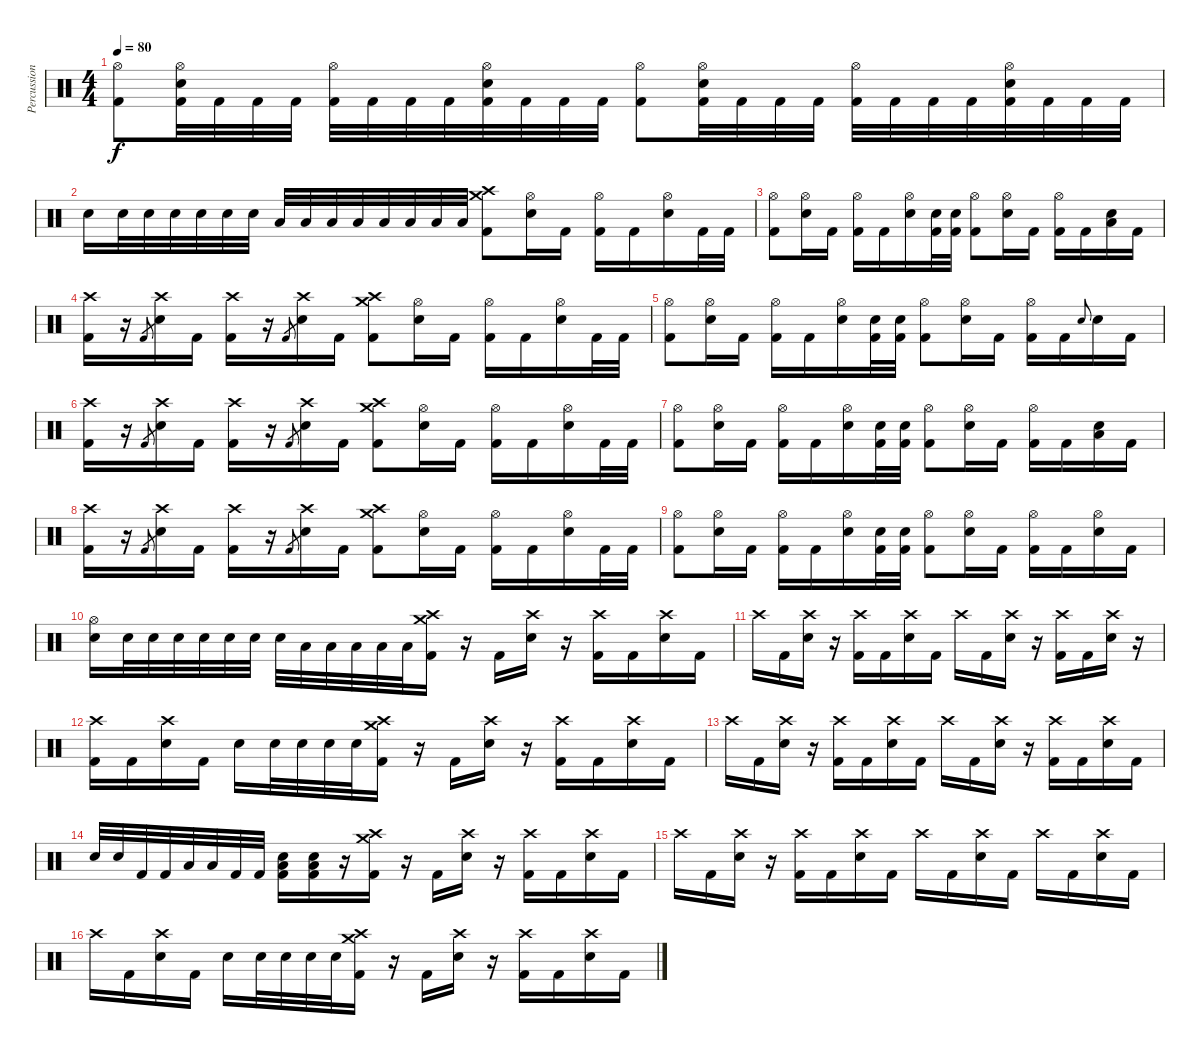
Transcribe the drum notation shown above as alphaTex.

\track ("Percussion" "Percussion") {instrument percussion}
\staff {score}
\articulation defaults
\ts (4 4)
\tempo 80
\clef neutral
\ks c
("Hi-Hat (open)" "Kick (hit) 2").8{dy f} ("Hi-Hat (open)" "Electric Snare (hit)" "Kick (hit) 2").32 "Kick (hit) 2".32 "Kick (hit) 2".32 "Kick (hit) 2".32 ("Hi-Hat (open)" "Kick (hit) 2").32 "Kick (hit) 2".32 "Kick (hit) 2".32 "Kick (hit) 2".32 ("Hi-Hat (open)" "Electric Snare (hit)" "Kick (hit) 2").32 "Kick (hit) 2".32 "Kick (hit) 2".32 "Kick (hit) 2".32 ("Hi-Hat (open)" "Kick (hit) 2").8 ("Hi-Hat (open)" "Electric Snare (hit)" "Kick (hit) 2").32 "Kick (hit) 2".32 "Kick (hit) 2".32 "Kick (hit) 2".32 ("Hi-Hat (open)" "Kick (hit) 2").32 "Kick (hit) 2".32 "Kick (hit) 2".32 "Kick (hit) 2".32 ("Hi-Hat (open)" "Electric Snare (hit)" "Kick (hit) 2").32 "Kick (hit) 2".32 "Kick (hit) 2".32 "Kick (hit) 2".32 |
"Electric Snare (hit)".16 "Electric Snare (hit)".32 "Electric Snare (hit)".32 "Electric Snare (hit)".32 "Electric Snare (hit)".32 "Electric Snare (hit)".32 "Electric Snare (hit)".32 "Low Tom (hit)".32 "Low Tom (hit)".32 "Low Tom (hit)".32 "Low Tom (hit)".32 "Low Floor Tom (hit)".32 "Low Floor Tom (hit)".32 "Low Floor Tom (hit)".32 "Low Floor Tom (hit)".32 ("Crash medium (hit)" "Crash high (hit)" "Kick (hit) 2").8 ("Hi-Hat (open)" "Electric Snare (hit)").16 "Kick (hit) 2".16 ("Hi-Hat (open)" "Kick (hit) 2").16 "Kick (hit) 2".16 ("Hi-Hat (open)" "Electric Snare (hit)").16 "Kick (hit) 2".32 "Kick (hit) 2".32 |
("Hi-Hat (open)" "Kick (hit) 2").8 ("Hi-Hat (open)" "Electric Snare (hit)").16 "Kick (hit) 2".16 ("Hi-Hat (open)" "Kick (hit) 2").16 "Kick (hit) 2".16 ("Hi-Hat (open)" "Electric Snare (hit)").16 ("Electric Snare (hit)" "Kick (hit) 2").32 ("Electric Snare (hit)" "Kick (hit) 2").32 ("Hi-Hat (open)" "Kick (hit) 2").8 ("Hi-Hat (open)" "Electric Snare (hit)").16 "Kick (hit) 2".16 ("Hi-Hat (open)" "Kick (hit) 2").16 "Kick (hit) 2".16 ("Low Floor Tom (hit)" "Electric Snare (hit)").16 "Kick (hit) 2".16 |
("Crash high (hit)" "Kick (hit) 2").16 r.16 "Kick (hit) 2".8{gr} ("Crash high (hit)" "Electric Snare (hit)").16 "Kick (hit) 2".16 ("Crash high (hit)" "Kick (hit) 2").16 r.16 "Kick (hit) 2".8{gr} ("Crash high (hit)" "Electric Snare (hit)").16 "Kick (hit) 2".16 ("Crash medium (hit)" "Crash high (hit)" "Kick (hit) 2").8 ("Hi-Hat (open)" "Electric Snare (hit)").16 "Kick (hit) 2".16 ("Hi-Hat (open)" "Kick (hit) 2").16 "Kick (hit) 2".16 ("Hi-Hat (open)" "Electric Snare (hit)").16 "Kick (hit) 2".32 "Kick (hit) 2".32 |
("Hi-Hat (open)" "Kick (hit) 2").8 ("Hi-Hat (open)" "Electric Snare (hit)").16 "Kick (hit) 2".16 ("Hi-Hat (open)" "Kick (hit) 2").16 "Kick (hit) 2".16 ("Hi-Hat (open)" "Electric Snare (hit)").16 ("Electric Snare (hit)" "Kick (hit) 2").32 ("Electric Snare (hit)" "Kick (hit) 2").32 ("Hi-Hat (open)" "Kick (hit) 2").8 ("Hi-Hat (open)" "Electric Snare (hit)").16 "Kick (hit) 2".16 ("Hi-Hat (open)" "Kick (hit) 2").16 "Kick (hit) 2".16 "Electric Snare (hit)".8{gr onbeat} "Electric Snare (hit)".16 "Kick (hit) 2".16 |
("Crash high (hit)" "Kick (hit) 2").16 r.16 "Kick (hit) 2".8{gr} ("Crash high (hit)" "Electric Snare (hit)").16 "Kick (hit) 2".16 ("Crash high (hit)" "Kick (hit) 2").16 r.16 "Kick (hit) 2".8{gr} ("Crash high (hit)" "Electric Snare (hit)").16 "Kick (hit) 2".16 ("Crash medium (hit)" "Crash high (hit)" "Kick (hit) 2").8 ("Hi-Hat (open)" "Electric Snare (hit)").16 "Kick (hit) 2".16 ("Hi-Hat (open)" "Kick (hit) 2").16 "Kick (hit) 2".16 ("Hi-Hat (open)" "Electric Snare (hit)").16 "Kick (hit) 2".32 "Kick (hit) 2".32 |
("Hi-Hat (open)" "Kick (hit) 2").8 ("Hi-Hat (open)" "Electric Snare (hit)").16 "Kick (hit) 2".16 ("Hi-Hat (open)" "Kick (hit) 2").16 "Kick (hit) 2".16 ("Hi-Hat (open)" "Electric Snare (hit)").16 ("Electric Snare (hit)" "Kick (hit) 2").32 ("Electric Snare (hit)" "Kick (hit) 2").32 ("Hi-Hat (open)" "Kick (hit) 2").8 ("Hi-Hat (open)" "Electric Snare (hit)").16 "Kick (hit) 2".16 ("Hi-Hat (open)" "Kick (hit) 2").16 "Kick (hit) 2".16 ("Low Floor Tom (hit)" "Electric Snare (hit)").16 "Kick (hit) 2".16 |
("Crash high (hit)" "Kick (hit) 2").16 r.16 "Kick (hit) 2".8{gr} ("Crash high (hit)" "Electric Snare (hit)").16 "Kick (hit) 2".16 ("Crash high (hit)" "Kick (hit) 2").16 r.16 "Kick (hit) 2".8{gr} ("Crash high (hit)" "Electric Snare (hit)").16 "Kick (hit) 2".16 ("Crash medium (hit)" "Crash high (hit)" "Kick (hit) 2").8 ("Hi-Hat (open)" "Electric Snare (hit)").16 "Kick (hit) 2".16 ("Hi-Hat (open)" "Kick (hit) 2").16 "Kick (hit) 2".16 ("Hi-Hat (open)" "Electric Snare (hit)").16 "Kick (hit) 2".32 "Kick (hit) 2".32 |
("Hi-Hat (open)" "Kick (hit) 2").8 ("Hi-Hat (open)" "Electric Snare (hit)").16 "Kick (hit) 2".16 ("Hi-Hat (open)" "Kick (hit) 2").16 "Kick (hit) 2".16 ("Hi-Hat (open)" "Electric Snare (hit)").16 ("Electric Snare (hit)" "Kick (hit) 2").32 ("Electric Snare (hit)" "Kick (hit) 2").32 ("Hi-Hat (open)" "Kick (hit) 2").8 ("Hi-Hat (open)" "Electric Snare (hit)").16 "Kick (hit) 2".16 ("Hi-Hat (open)" "Kick (hit) 2").16 "Kick (hit) 2".16 ("Hi-Hat (open)" "Electric Snare (hit)").16 "Kick (hit) 2".16 |
("Hi-Hat (open)" "Electric Snare (hit)").16 "Electric Snare (hit)".32 "Electric Snare (hit)".32 "Electric Snare (hit)".32 "Electric Snare (hit)".32 "Electric Snare (hit)".32 "Electric Snare (hit)".32 "Electric Snare (hit)".32 "Low Tom (hit)".32 "Low Tom (hit)".32 "Low Tom (hit)".32 "Low Tom (hit)".32 "Low Floor Tom (hit)".32 ("Crash medium (hit)" "Crash high (hit)" "Kick (hit) 2").16 r.16 "Kick (hit) 2".16 ("Crash high (hit)" "Electric Snare (hit)").16 r.16 ("Crash high (hit)" "Kick (hit) 2").16 "Kick (hit) 2".16 ("Crash high (hit)" "Electric Snare (hit)").16 "Kick (hit) 2".16 |
"Crash high (hit)".16 "Kick (hit) 2".16 ("Crash high (hit)" "Electric Snare (hit)").16 r.16 ("Crash high (hit)" "Kick (hit) 2").16 "Kick (hit) 2".16 ("Crash high (hit)" "Electric Snare (hit)").16 "Kick (hit) 2".16 "Crash high (hit)".16 "Kick (hit) 2".16 ("Crash high (hit)" "Electric Snare (hit)").16 r.16 ("Crash high (hit)" "Kick (hit) 2").16 "Kick (hit) 2".16 ("Crash high (hit)" "Electric Snare (hit)").16 r.16 |
("Crash high (hit)" "Kick (hit) 2").16 "Kick (hit) 2".16 ("Crash high (hit)" "Electric Snare (hit)").16 "Kick (hit) 2".16 "Electric Snare (hit)".16 "Electric Snare (hit)".32 "Electric Snare (hit)".32 "Electric Snare (hit)".32 "Electric Snare (hit)".32 ("Crash medium (hit)" "Crash high (hit)" "Kick (hit) 2").16 r.16 "Kick (hit) 2".16 ("Crash high (hit)" "Electric Snare (hit)").16 r.16 ("Crash high (hit)" "Kick (hit) 2").16 "Kick (hit) 2".16 ("Crash high (hit)" "Electric Snare (hit)").16 "Kick (hit) 2".16 |
"Crash high (hit)".16 "Kick (hit) 2".16 ("Crash high (hit)" "Electric Snare (hit)").16 r.16 ("Crash high (hit)" "Kick (hit) 2").16 "Kick (hit) 2".16 ("Crash high (hit)" "Electric Snare (hit)").16 "Kick (hit) 2".16 "Crash high (hit)".16 "Kick (hit) 2".16 ("Crash high (hit)" "Electric Snare (hit)").16 r.16 ("Crash high (hit)" "Kick (hit) 2").16 "Kick (hit) 2".16 ("Crash high (hit)" "Electric Snare (hit)").16 "Kick (hit) 2".16 |
"Electric Snare (hit)".32 "Electric Snare (hit)".32 "Kick (hit) 2".32 "Kick (hit) 2".32 "Low Tom (hit)".32 "Low Tom (hit)".32 "Kick (hit) 2".32 "Kick (hit) 2".32 ("Low Floor Tom (hit)" "Electric Snare (hit)" "Kick (hit) 2").16 ("Low Floor Tom (hit)" "Electric Snare (hit)" "Kick (hit) 2").16 r.16 ("Crash medium (hit)" "Crash high (hit)" "Kick (hit) 2").16 r.16 "Kick (hit) 2".16 ("Crash high (hit)" "Electric Snare (hit)").16 r.16 ("Crash high (hit)" "Kick (hit) 2").16 "Kick (hit) 2".16 ("Crash high (hit)" "Electric Snare (hit)").16 "Kick (hit) 2".16 |
"Crash high (hit)".16 "Kick (hit) 2".16 ("Crash high (hit)" "Electric Snare (hit)").16 r.16 ("Crash high (hit)" "Kick (hit) 2").16 "Kick (hit) 2".16 ("Crash high (hit)" "Electric Snare (hit)").16 "Kick (hit) 2".16 "Crash high (hit)".16 "Kick (hit) 2".16 ("Crash high (hit)" "Electric Snare (hit)").16 "Kick (hit) 2".16 "Crash high (hit)".16 "Kick (hit) 2".16 ("Crash high (hit)" "Electric Snare (hit)").16 "Kick (hit) 2".16 |
"Crash high (hit)".16 "Kick (hit) 2".16 ("Crash high (hit)" "Electric Snare (hit)").16 "Kick (hit) 2".16 "Electric Snare (hit)".16 "Electric Snare (hit)".32 "Electric Snare (hit)".32 "Electric Snare (hit)".32 "Electric Snare (hit)".32 ("Crash medium (hit)" "Crash high (hit)" "Kick (hit) 2").16 r.16 "Kick (hit) 2".16 ("Crash high (hit)" "Electric Snare (hit)").16 r.16 ("Crash high (hit)" "Kick (hit) 2").16 "Kick (hit) 2".16 ("Crash high (hit)" "Electric Snare (hit)").16 "Kick (hit) 2".16
